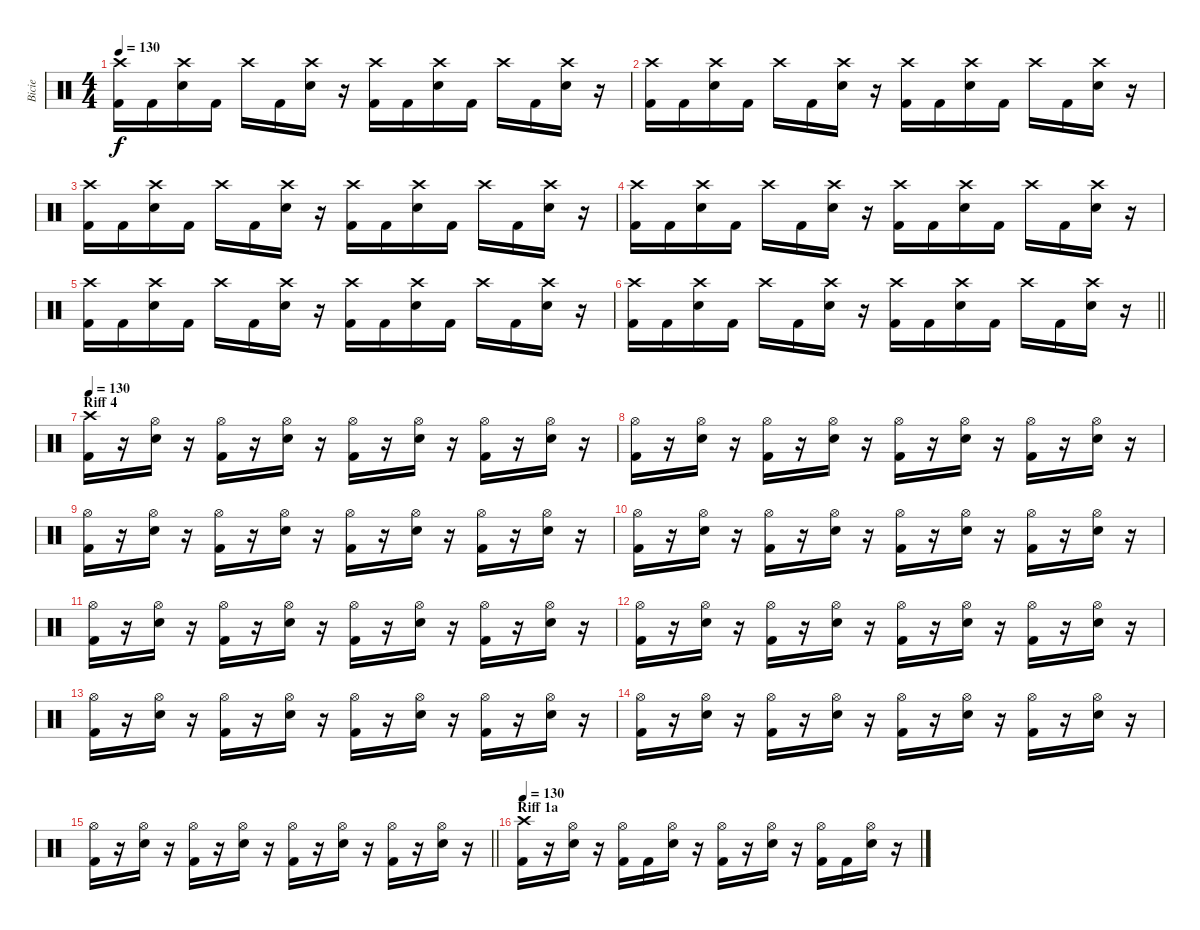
\track ("Bicie" "Bicie") {instrument percussion}
\staff {score}
\articulation defaults
\ts (4 4)
\tempo 130
\clef neutral
\ks c
("Crash high (hit)" "Kick (hit) 2").16{dy f} "Kick (hit) 2".16 ("Crash high (hit)" "Snare (hit) 2").16 "Kick (hit) 2".16 "Crash high (hit)".16 "Kick (hit) 2".16 ("Crash high (hit)" "Snare (hit) 2").16 r.16 ("Crash high (hit)" "Kick (hit) 2").16 "Kick (hit) 2".16 ("Crash high (hit)" "Snare (hit) 2").16 "Kick (hit) 2".16 "Crash high (hit)".16 "Kick (hit) 2".16 ("Crash high (hit)" "Snare (hit) 2").16 r.16 |
("Crash high (hit)" "Kick (hit) 2").16 "Kick (hit) 2".16 ("Crash high (hit)" "Snare (hit) 2").16 "Kick (hit) 2".16 "Crash high (hit)".16 "Kick (hit) 2".16 ("Crash high (hit)" "Snare (hit) 2").16 r.16 ("Crash high (hit)" "Kick (hit) 2").16 "Kick (hit) 2".16 ("Crash high (hit)" "Snare (hit) 2").16 "Kick (hit) 2".16 "Crash high (hit)".16 "Kick (hit) 2".16 ("Crash high (hit)" "Snare (hit) 2").16 r.16 |
("Crash high (hit)" "Kick (hit) 2").16 "Kick (hit) 2".16 ("Crash high (hit)" "Snare (hit) 2").16 "Kick (hit) 2".16 "Crash high (hit)".16 "Kick (hit) 2".16 ("Crash high (hit)" "Snare (hit) 2").16 r.16 ("Crash high (hit)" "Kick (hit) 2").16 "Kick (hit) 2".16 ("Crash high (hit)" "Snare (hit) 2").16 "Kick (hit) 2".16 "Crash high (hit)".16 "Kick (hit) 2".16 ("Crash high (hit)" "Snare (hit) 2").16 r.16 |
("Crash high (hit)" "Kick (hit) 2").16 "Kick (hit) 2".16 ("Crash high (hit)" "Snare (hit) 2").16 "Kick (hit) 2".16 "Crash high (hit)".16 "Kick (hit) 2".16 ("Crash high (hit)" "Snare (hit) 2").16 r.16 ("Crash high (hit)" "Kick (hit) 2").16 "Kick (hit) 2".16 ("Crash high (hit)" "Snare (hit) 2").16 "Kick (hit) 2".16 "Crash high (hit)".16 "Kick (hit) 2".16 ("Crash high (hit)" "Snare (hit) 2").16 r.16 |
("Crash high (hit)" "Kick (hit) 2").16 "Kick (hit) 2".16 ("Crash high (hit)" "Snare (hit) 2").16 "Kick (hit) 2".16 "Crash high (hit)".16 "Kick (hit) 2".16 ("Crash high (hit)" "Snare (hit) 2").16 r.16 ("Crash high (hit)" "Kick (hit) 2").16 "Kick (hit) 2".16 ("Crash high (hit)" "Snare (hit) 2").16 "Kick (hit) 2".16 "Crash high (hit)".16 "Kick (hit) 2".16 ("Crash high (hit)" "Snare (hit) 2").16 r.16 |
\barLineRight lightlight
("Crash high (hit)" "Kick (hit) 2").16 "Kick (hit) 2".16 ("Crash high (hit)" "Snare (hit) 2").16 "Kick (hit) 2".16 "Crash high (hit)".16 "Kick (hit) 2".16 ("Crash high (hit)" "Snare (hit) 2").16 r.16 ("Crash high (hit)" "Kick (hit) 2").16 "Kick (hit) 2".16 ("Crash high (hit)" "Snare (hit) 2").16 "Kick (hit) 2".16 "Crash high (hit)".16 "Kick (hit) 2".16 ("Crash high (hit)" "Snare (hit) 2").16 r.16 |
\section ("" "Riff 4")
\tempo 130
("Crash high (hit)" "Kick (hit) 2").16 r.16 ("Hi-Hat (open)" "Snare (hit) 2").16 r.16 ("Hi-Hat (open)" "Kick (hit) 2").16 r.16 ("Hi-Hat (open)" "Snare (hit) 2").16 r.16 ("Hi-Hat (open)" "Kick (hit) 2").16 r.16 ("Hi-Hat (open)" "Snare (hit) 2").16 r.16 ("Hi-Hat (open)" "Kick (hit) 2").16 r.16 ("Hi-Hat (open)" "Snare (hit) 2").16 r.16 |
("Hi-Hat (open)" "Kick (hit) 2").16 r.16 ("Hi-Hat (open)" "Snare (hit) 2").16 r.16 ("Hi-Hat (open)" "Kick (hit) 2").16 r.16 ("Hi-Hat (open)" "Snare (hit) 2").16 r.16 ("Hi-Hat (open)" "Kick (hit) 2").16 r.16 ("Hi-Hat (open)" "Snare (hit) 2").16 r.16 ("Hi-Hat (open)" "Kick (hit) 2").16 r.16 ("Hi-Hat (open)" "Snare (hit) 2").16 r.16 |
("Hi-Hat (open)" "Kick (hit) 2").16 r.16 ("Hi-Hat (open)" "Snare (hit) 2").16 r.16 ("Hi-Hat (open)" "Kick (hit) 2").16 r.16 ("Hi-Hat (open)" "Snare (hit) 2").16 r.16 ("Hi-Hat (open)" "Kick (hit) 2").16 r.16 ("Hi-Hat (open)" "Snare (hit) 2").16 r.16 ("Hi-Hat (open)" "Kick (hit) 2").16 r.16 ("Hi-Hat (open)" "Snare (hit) 2").16 r.16 |
("Hi-Hat (open)" "Kick (hit) 2").16 r.16 ("Hi-Hat (open)" "Snare (hit) 2").16 r.16 ("Hi-Hat (open)" "Kick (hit) 2").16 r.16 ("Hi-Hat (open)" "Snare (hit) 2").16 r.16 ("Hi-Hat (open)" "Kick (hit) 2").16 r.16 ("Hi-Hat (open)" "Snare (hit) 2").16 r.16 ("Hi-Hat (open)" "Kick (hit) 2").16 r.16 ("Hi-Hat (open)" "Snare (hit) 2").16 r.16 |
("Hi-Hat (open)" "Kick (hit) 2").16 r.16 ("Hi-Hat (open)" "Snare (hit) 2").16 r.16 ("Hi-Hat (open)" "Kick (hit) 2").16 r.16 ("Hi-Hat (open)" "Snare (hit) 2").16 r.16 ("Hi-Hat (open)" "Kick (hit) 2").16 r.16 ("Hi-Hat (open)" "Snare (hit) 2").16 r.16 ("Hi-Hat (open)" "Kick (hit) 2").16 r.16 ("Hi-Hat (open)" "Snare (hit) 2").16 r.16 |
("Hi-Hat (open)" "Kick (hit) 2").16 r.16 ("Hi-Hat (open)" "Snare (hit) 2").16 r.16 ("Hi-Hat (open)" "Kick (hit) 2").16 r.16 ("Hi-Hat (open)" "Snare (hit) 2").16 r.16 ("Hi-Hat (open)" "Kick (hit) 2").16 r.16 ("Hi-Hat (open)" "Snare (hit) 2").16 r.16 ("Hi-Hat (open)" "Kick (hit) 2").16 r.16 ("Hi-Hat (open)" "Snare (hit) 2").16 r.16 |
("Hi-Hat (open)" "Kick (hit) 2").16 r.16 ("Hi-Hat (open)" "Snare (hit) 2").16 r.16 ("Hi-Hat (open)" "Kick (hit) 2").16 r.16 ("Hi-Hat (open)" "Snare (hit) 2").16 r.16 ("Hi-Hat (open)" "Kick (hit) 2").16 r.16 ("Hi-Hat (open)" "Snare (hit) 2").16 r.16 ("Hi-Hat (open)" "Kick (hit) 2").16 r.16 ("Hi-Hat (open)" "Snare (hit) 2").16 r.16 |
("Hi-Hat (open)" "Kick (hit) 2").16 r.16 ("Hi-Hat (open)" "Snare (hit) 2").16 r.16 ("Hi-Hat (open)" "Kick (hit) 2").16 r.16 ("Hi-Hat (open)" "Snare (hit) 2").16 r.16 ("Hi-Hat (open)" "Kick (hit) 2").16 r.16 ("Hi-Hat (open)" "Snare (hit) 2").16 r.16 ("Hi-Hat (open)" "Kick (hit) 2").16 r.16 ("Hi-Hat (open)" "Snare (hit) 2").16 r.16 |
\barLineRight lightlight
("Hi-Hat (open)" "Kick (hit) 2").16 r.16 ("Hi-Hat (open)" "Snare (hit) 2").16 r.16 ("Hi-Hat (open)" "Kick (hit) 2").16 r.16 ("Hi-Hat (open)" "Snare (hit) 2").16 r.16 ("Hi-Hat (open)" "Kick (hit) 2").16 r.16 ("Hi-Hat (open)" "Snare (hit) 2").16 r.16 ("Hi-Hat (open)" "Kick (hit) 2").16 r.16 ("Hi-Hat (open)" "Snare (hit) 2").16 r.16 |
\section ("" "Riff 1a")
\tempo 130
("Crash high (hit)" "Kick (hit) 2").16 r.16 ("Hi-Hat (open)" "Snare (hit) 2").16 r.16 ("Hi-Hat (open)" "Kick (hit) 2").16 "Kick (hit) 2".16 ("Hi-Hat (open)" "Snare (hit) 2").16 r.16 ("Hi-Hat (open)" "Kick (hit) 2").16 r.16 ("Hi-Hat (open)" "Snare (hit) 2").16 r.16 ("Hi-Hat (open)" "Kick (hit) 2").16 "Kick (hit) 2".16 ("Hi-Hat (open)" "Snare (hit) 2").16 r.16
